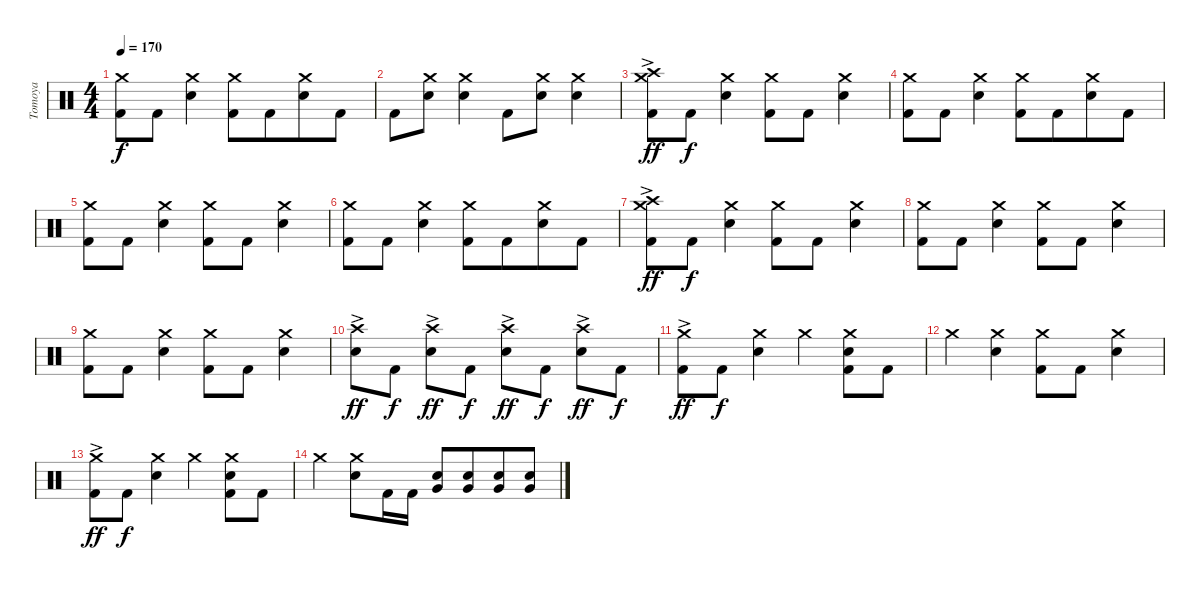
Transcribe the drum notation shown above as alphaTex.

\track ("Tomoya" "Tomoya") {instrument percussion}
\staff {score}
\articulation defaults
\ts (4 4)
\tempo 170
\clef neutral
\ks c
("Crash medium (hit)" "Kick (hit) 2").8{dy f} "Kick (hit) 2".8 ("Crash medium (hit)" "Snare (hit) 2").4 ("Crash medium (hit)" "Kick (hit) 2").8 "Kick (hit) 2".8{beam merge} ("Crash medium (hit)" "Snare (hit) 2").8 "Kick (hit) 2".8 |
"Kick (hit) 2".8 ("Crash medium (hit)" "Snare (hit) 2").8 ("Crash medium (hit)" "Snare (hit) 2").4 "Kick (hit) 2".8 ("Crash medium (hit)" "Snare (hit) 2").8 ("Crash medium (hit)" "Snare (hit) 2").4 |
("Crash medium (hit)"{ac} "Crash high (hit)" "Kick (hit) 2"{ac}).8{dy ff} "Kick (hit) 2".8{dy f} ("Crash medium (hit)" "Snare (hit) 2").4 ("Crash medium (hit)" "Kick (hit) 2").8 "Kick (hit) 2".8 ("Crash medium (hit)" "Snare (hit) 2").4 |
("Crash medium (hit)" "Kick (hit) 2").8 "Kick (hit) 2".8 ("Crash medium (hit)" "Snare (hit) 2").4 ("Crash medium (hit)" "Kick (hit) 2").8 "Kick (hit) 2".8{beam merge} ("Crash medium (hit)" "Snare (hit) 2").8 "Kick (hit) 2".8 |
("Crash medium (hit)" "Kick (hit) 2").8 "Kick (hit) 2".8 ("Crash medium (hit)" "Snare (hit) 2").4 ("Crash medium (hit)" "Kick (hit) 2").8 "Kick (hit) 2".8 ("Crash medium (hit)" "Snare (hit) 2").4 |
("Crash medium (hit)" "Kick (hit) 2").8 "Kick (hit) 2".8 ("Crash medium (hit)" "Snare (hit) 2").4 ("Crash medium (hit)" "Kick (hit) 2").8 "Kick (hit) 2".8{beam merge} ("Crash medium (hit)" "Snare (hit) 2").8 "Kick (hit) 2".8 |
("Crash medium (hit)"{ac} "Crash high (hit)" "Kick (hit) 2"{ac}).8{dy ff} "Kick (hit) 2".8{dy f} ("Crash medium (hit)" "Snare (hit) 2").4 ("Crash medium (hit)" "Kick (hit) 2").8 "Kick (hit) 2".8 ("Crash medium (hit)" "Snare (hit) 2").4 |
("Crash medium (hit)" "Kick (hit) 2").8 "Kick (hit) 2".8 ("Crash medium (hit)" "Snare (hit) 2").4 ("Crash medium (hit)" "Kick (hit) 2").8 "Kick (hit) 2".8 ("Crash medium (hit)" "Snare (hit) 2").4 |
("Crash medium (hit)" "Kick (hit) 2").8 "Kick (hit) 2".8 ("Crash medium (hit)" "Snare (hit) 2").4 ("Crash medium (hit)" "Kick (hit) 2").8 "Kick (hit) 2".8 ("Crash medium (hit)" "Snare (hit) 2").4 |
("Crash high (hit)"{ac} "Snare (hit) 2").8{dy ff} "Kick (hit) 2".8{dy f} ("Crash high (hit)"{ac} "Snare (hit) 2"{ac}).8{dy ff} "Kick (hit) 2".8{dy f} ("Crash high (hit)"{ac} "Snare (hit) 2").8{dy ff} "Kick (hit) 2".8{dy f} ("Crash high (hit)"{ac} "Snare (hit) 2"{ac}).8{dy ff} "Kick (hit) 2".8{dy f} |
("Crash medium (hit)"{ac} "Kick (hit) 2"{ac}).8{dy ff} "Kick (hit) 2".8{dy f} ("Crash medium (hit)" "Snare (hit) 2").4 "Crash medium (hit)".4 ("Crash medium (hit)" "Snare (hit) 2" "Kick (hit) 2").8 "Kick (hit) 2".8 |
"Crash medium (hit)".4 ("Crash medium (hit)" "Snare (hit) 2").4 ("Crash medium (hit)" "Kick (hit) 2").8 "Kick (hit) 2".8 ("Crash medium (hit)" "Snare (hit) 2").4 |
("Crash medium (hit)"{ac} "Kick (hit) 2"{ac}).8{dy ff} "Kick (hit) 2".8{dy f} ("Crash medium (hit)" "Snare (hit) 2").4 "Crash medium (hit)".4 ("Crash medium (hit)" "Snare (hit) 2" "Kick (hit) 2").8 "Kick (hit) 2".8 |
"Crash medium (hit)".4 ("Crash medium (hit)" "Snare (hit) 2").8 "Kick (hit) 2".16 "Kick (hit) 2".16 ("Snare (hit) 2" "Very Low Tom (hit)").8 ("Snare (hit) 2" "Very Low Tom (hit)").8{beam merge} ("Snare (hit) 2" "Very Low Tom (hit)").8 ("Snare (hit) 2" "Very Low Tom (hit)").8
